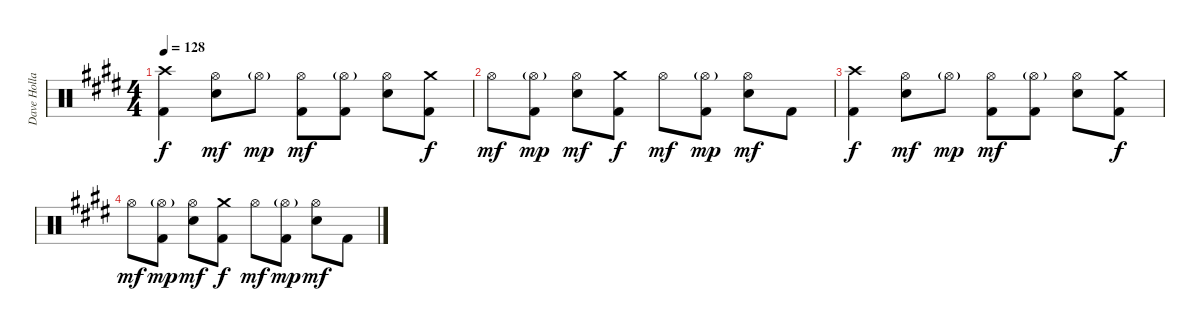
\track ("Dave Holland" "Dave Holla") {instrument percussion}
\staff {score}
\articulation defaults
\ts (4 4)
\tempo 128
\clef neutral
\ks e
("Crash high (hit)" "Kick (hit) 2").4{dy f volume 0} ("Hi-Hat (open)" "Electric Snare (hit)").8{dy mf} "Hi-Hat (open)"{g}.8{dy mp} ("Hi-Hat (open)" "Kick (hit) 2").8{dy mf} ("Hi-Hat (open)"{g} "Kick (hit) 2").8 ("Hi-Hat (open)" "Electric Snare (hit)").8 ("Crash medium (hit)" "Kick (hit) 2").8{dy f} |
"Hi-Hat (open)".8{dy mf} ("Hi-Hat (open)"{g} "Kick (hit) 2").8{dy mp} ("Hi-Hat (open)" "Electric Snare (hit)").8{dy mf} ("Crash medium (hit)" "Kick (hit) 2").8{dy f} "Hi-Hat (open)".8{dy mf} ("Hi-Hat (open)"{g} "Kick (hit) 2").8{dy mp} ("Hi-Hat (open)" "Electric Snare (hit)").8{dy mf} "Kick (hit) 2".8 |
("Crash high (hit)" "Kick (hit) 2").4{dy f} ("Hi-Hat (open)" "Electric Snare (hit)").8{dy mf} "Hi-Hat (open)"{g}.8{dy mp} ("Hi-Hat (open)" "Kick (hit) 2").8{dy mf} ("Hi-Hat (open)"{g} "Kick (hit) 2").8 ("Hi-Hat (open)" "Electric Snare (hit)").8 ("Crash medium (hit)" "Kick (hit) 2").8{dy f} |
"Hi-Hat (open)".8{dy mf} ("Hi-Hat (open)"{g} "Kick (hit) 2").8{dy mp} ("Hi-Hat (open)" "Electric Snare (hit)").8{dy mf} ("Crash medium (hit)" "Kick (hit) 2").8{dy f} "Hi-Hat (open)".8{dy mf} ("Hi-Hat (open)"{g} "Kick (hit) 2").8{dy mp} ("Hi-Hat (open)" "Electric Snare (hit)").8{dy mf} "Kick (hit) 2".8
